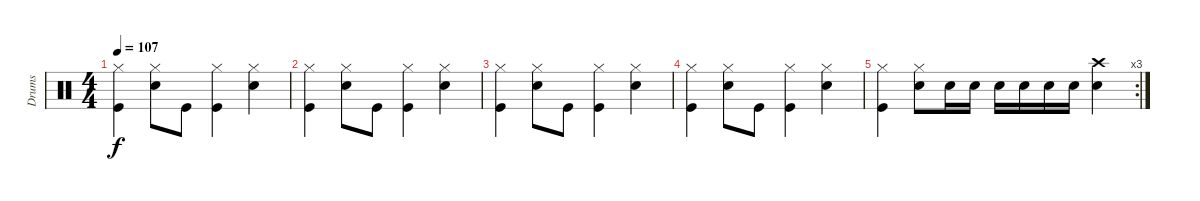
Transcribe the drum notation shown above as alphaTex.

\track ("Drums" "Drums") {instrument percussion}
\staff {score}
\articulation defaults
\ts (4 4)
\tempo 107
\clef neutral
\ks c
("Kick (hit)" "Hi-Hat (closed)").4{dy f} ("Snare (hit) 2" "Hi-Hat (closed)").8 "Kick (hit)".8 ("Kick (hit)" "Hi-Hat (closed)").4 ("Snare (hit) 2" "Hi-Hat (closed)").4 |
("Kick (hit)" "Hi-Hat (closed)").4 ("Snare (hit) 2" "Hi-Hat (closed)").8 "Kick (hit)".8 ("Kick (hit)" "Hi-Hat (closed)").4 ("Snare (hit) 2" "Hi-Hat (closed)").4 |
("Kick (hit)" "Hi-Hat (closed)").4 ("Snare (hit) 2" "Hi-Hat (closed)").8 "Kick (hit)".8 ("Kick (hit)" "Hi-Hat (closed)").4 ("Snare (hit) 2" "Hi-Hat (closed)").4 |
("Kick (hit)" "Hi-Hat (closed)").4 ("Snare (hit) 2" "Hi-Hat (closed)").8 "Kick (hit)".8 ("Kick (hit)" "Hi-Hat (closed)").4 ("Snare (hit) 2" "Hi-Hat (closed)").4 |
\rc 3
("Kick (hit)" "Hi-Hat (closed)").4 ("Snare (hit) 2" "Hi-Hat (closed)").8 "Snare (hit) 2".16 "Snare (hit) 2".16 "Snare (hit) 2".16 "Snare (hit) 2".16 "Snare (hit) 2".16 "Snare (hit) 2".16 ("Crash high (hit)" "Snare (hit) 2").4
